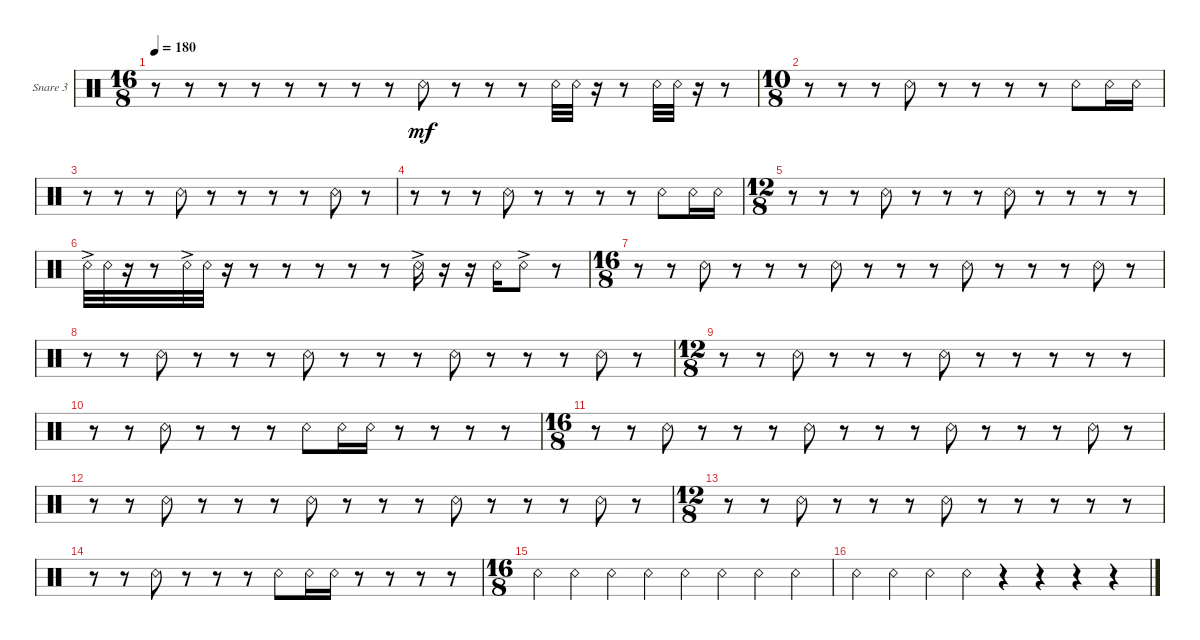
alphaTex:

\defaultSystemsLayout 4
\bracketExtendMode groupsimilarinstruments
\firstSystemTrackNameOrientation horizontal
\otherSystemsTrackNameOrientation horizontal
\track ("Snare 3" "Snare 3") {instrument percussion}
\staff {score}
\articulation defaults
\ts (16 8)
\tempo 180
\clef neutral
\ks c
r.8{dy mf} r.8 r.8 r.8 r.8 r.8 r.8 r.8 "Snare (rim shot)".8 r.8 r.8 r.8 "Snare (rim shot)".32 "Snare (rim shot)".32 r.16 r.8 "Snare (rim shot)".32 "Snare (rim shot)".32 r.16 r.8 |
\ts (10 8)
r.8 r.8 r.8 "Snare (rim shot)".8 r.8 r.8 r.8 r.8 "Snare (rim shot)".8 "Snare (rim shot)".16 "Snare (rim shot)".16 |
r.8 r.8 r.8 "Snare (rim shot)".8 r.8 r.8 r.8 r.8 "Snare (rim shot)".8 r.8 |
r.8 r.8 r.8 "Snare (rim shot)".8 r.8 r.8 r.8 r.8 "Snare (rim shot)".8 "Snare (rim shot)".16 "Snare (rim shot)".16 |
\ts (12 8)
r.8 r.8 r.8 "Snare (rim shot)".8 r.8 r.8 r.8 "Snare (rim shot)".8 r.8 r.8 r.8 r.8 |
"Snare (rim shot)"{ac}.32 "Snare (rim shot)".32 r.16 r.8 "Snare (rim shot)"{ac}.32 "Snare (rim shot)".32 r.16 r.8 r.8 r.8 r.8 r.8 "Snare (rim shot)"{ac}.16 r.16 r.16 "Snare (rim shot)".16 "Snare (rim shot)"{ac}.8 r.8 |
\ts (16 8)
r.8 r.8 "Snare (rim shot)".8 r.8 r.8 r.8 "Snare (rim shot)".8 r.8 r.8 r.8 "Snare (rim shot)".8 r.8 r.8 r.8 "Snare (rim shot)".8 r.8 |
r.8 r.8 "Snare (rim shot)".8 r.8 r.8 r.8 "Snare (rim shot)".8 r.8 r.8 r.8 "Snare (rim shot)".8 r.8 r.8 r.8 "Snare (rim shot)".8 r.8 |
\ts (12 8)
r.8 r.8 "Snare (rim shot)".8 r.8 r.8 r.8 "Snare (rim shot)".8 r.8 r.8 r.8 r.8 r.8 |
r.8 r.8 "Snare (rim shot)".8 r.8 r.8 r.8 "Snare (rim shot)".8 "Snare (rim shot)".16 "Snare (rim shot)".16 r.8 r.8 r.8 r.8 |
\ts (16 8)
r.8 r.8 "Snare (rim shot)".8 r.8 r.8 r.8 "Snare (rim shot)".8 r.8 r.8 r.8 "Snare (rim shot)".8 r.8 r.8 r.8 "Snare (rim shot)".8 r.8 |
r.8 r.8 "Snare (rim shot)".8 r.8 r.8 r.8 "Snare (rim shot)".8 r.8 r.8 r.8 "Snare (rim shot)".8 r.8 r.8 r.8 "Snare (rim shot)".8 r.8 |
\ts (12 8)
r.8 r.8 "Snare (rim shot)".8 r.8 r.8 r.8 "Snare (rim shot)".8 r.8 r.8 r.8 r.8 r.8 |
r.8 r.8 "Snare (rim shot)".8 r.8 r.8 r.8 "Snare (rim shot)".8 "Snare (rim shot)".16 "Snare (rim shot)".16 r.8 r.8 r.8 r.8 |
\ts (16 8)
"Snare (rim shot)".4 "Snare (rim shot)".4 "Snare (rim shot)".4 "Snare (rim shot)".4 "Snare (rim shot)".4 "Snare (rim shot)".4 "Snare (rim shot)".4 "Snare (rim shot)".4 |
"Snare (rim shot)".4 "Snare (rim shot)".4 "Snare (rim shot)".4 "Snare (rim shot)".4 r.4 r.4 r.4 r.4
